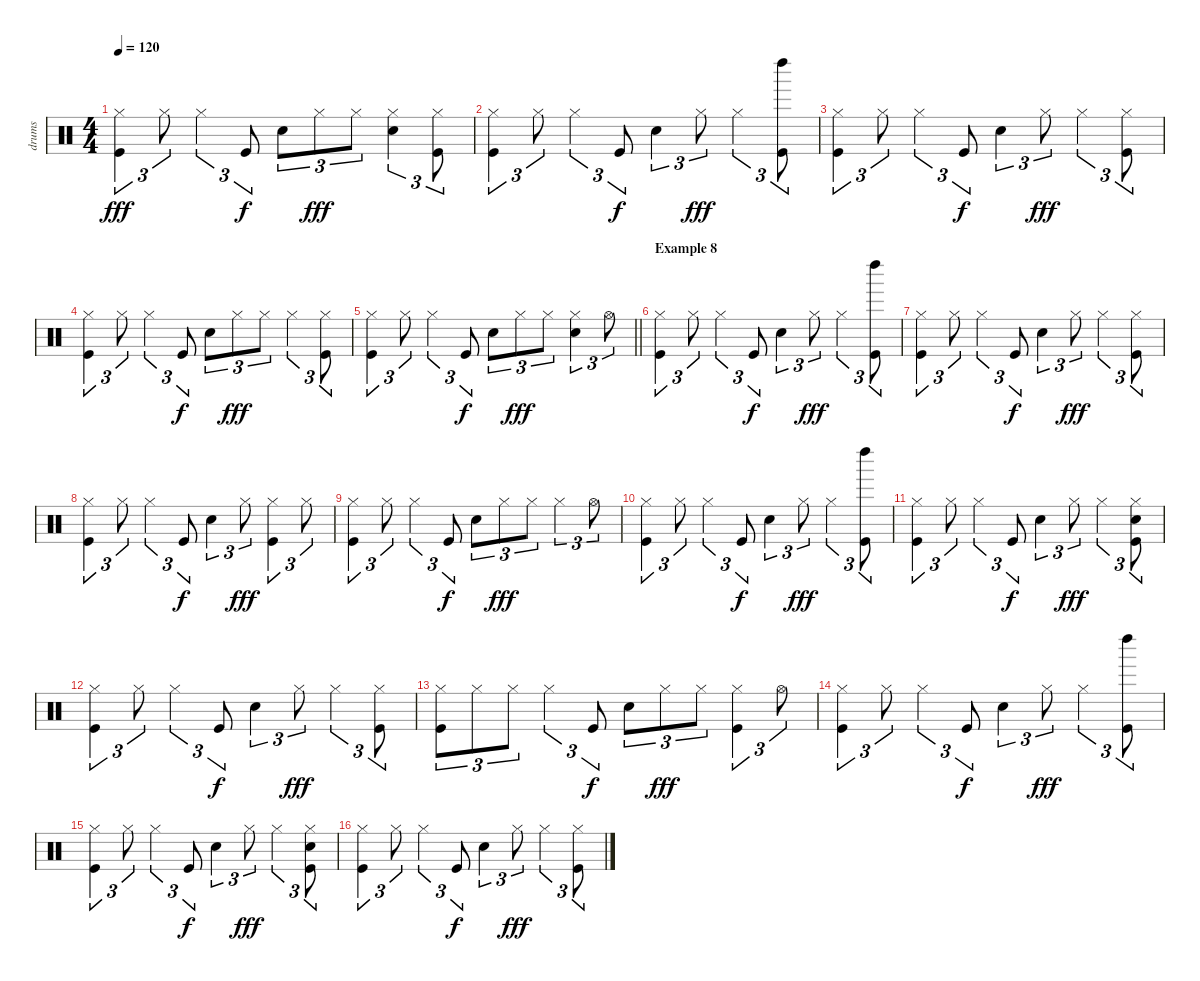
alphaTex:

\track ("drums" "drums") {instrument percussion}
\staff {score}
\articulation defaults
\ts (4 4)
\tempo 120
\clef neutral
\ks c
("Hi-Hat (closed)" "Kick (hit)").4{tu (3 2) dy fff} "Hi-Hat (closed)".8{tu (3 2)} "Hi-Hat (closed)".4{tu (3 2)} "Kick (hit)".8{tu (3 2) dy f} "Snare (hit) 2".8{tu (3 2)} "Hi-Hat (closed)".8{tu (3 2) dy fff} "Hi-Hat (closed)".8{tu (3 2)} ("Snare (hit) 2" "Hi-Hat (closed)").4{tu (3 2)} ("Hi-Hat (closed)" "Kick (hit)").8{tu (3 2)} |
("Hi-Hat (closed)" "Kick (hit)").4{tu (3 2)} "Hi-Hat (closed)".8{tu (3 2)} "Hi-Hat (closed)".4{tu (3 2)} "Kick (hit)".8{tu (3 2) dy f} "Snare (hit) 2".4{tu (3 2)} "Hi-Hat (closed)".8{tu (3 2) dy fff} "Hi-Hat (closed)".4{tu (3 2)} ("Left Maraca (hit)" "Kick (hit)").8{tu (3 2)} |
("Hi-Hat (closed)" "Kick (hit)").4{tu (3 2)} "Hi-Hat (closed)".8{tu (3 2)} "Hi-Hat (closed)".4{tu (3 2)} "Kick (hit)".8{tu (3 2) dy f} "Snare (hit) 2".4{tu (3 2)} "Hi-Hat (closed)".8{tu (3 2) dy fff} "Hi-Hat (closed)".4{tu (3 2)} ("Hi-Hat (closed)" "Kick (hit)").8{tu (3 2)} |
("Hi-Hat (closed)" "Kick (hit)").4{tu (3 2)} "Hi-Hat (closed)".8{tu (3 2)} "Hi-Hat (closed)".4{tu (3 2)} "Kick (hit)".8{tu (3 2) dy f} "Snare (hit) 2".8{tu (3 2)} "Hi-Hat (closed)".8{tu (3 2) dy fff} "Hi-Hat (closed)".8{tu (3 2)} "Hi-Hat (closed)".4{tu (3 2)} ("Hi-Hat (closed)" "Kick (hit)").8{tu (3 2)} |
\barLineRight lightlight
("Hi-Hat (closed)" "Kick (hit)").4{tu (3 2)} "Hi-Hat (closed)".8{tu (3 2)} "Hi-Hat (closed)".4{tu (3 2)} "Kick (hit)".8{tu (3 2) dy f} "Snare (hit) 2".8{tu (3 2)} "Hi-Hat (closed)".8{tu (3 2) dy fff} "Hi-Hat (closed)".8{tu (3 2)} ("Snare (hit) 2" "Hi-Hat (closed)").4{tu (3 2)} "Hi-Hat (open)".8{tu (3 2)} |
\section ("" "Example 8")
("Hi-Hat (closed)" "Kick (hit)").4{tu (3 2)} "Hi-Hat (closed)".8{tu (3 2)} "Hi-Hat (closed)".4{tu (3 2)} "Kick (hit)".8{tu (3 2) dy f} "Snare (hit) 2".4{tu (3 2)} "Hi-Hat (closed)".8{tu (3 2) dy fff} "Hi-Hat (closed)".4{tu (3 2)} ("Left Maraca (hit)" "Kick (hit)").8{tu (3 2)} |
("Hi-Hat (closed)" "Kick (hit)").4{tu (3 2)} "Hi-Hat (closed)".8{tu (3 2)} "Hi-Hat (closed)".4{tu (3 2)} "Kick (hit)".8{tu (3 2) dy f} "Snare (hit) 2".4{tu (3 2)} "Hi-Hat (closed)".8{tu (3 2) dy fff} "Hi-Hat (closed)".4{tu (3 2)} ("Hi-Hat (closed)" "Kick (hit)").8{tu (3 2)} |
("Hi-Hat (closed)" "Kick (hit)").4{tu (3 2)} "Hi-Hat (closed)".8{tu (3 2)} "Hi-Hat (closed)".4{tu (3 2)} "Kick (hit)".8{tu (3 2) dy f} "Snare (hit) 2".4{tu (3 2)} "Hi-Hat (closed)".8{tu (3 2) dy fff} ("Hi-Hat (closed)" "Kick (hit)").4{tu (3 2)} "Hi-Hat (closed)".8{tu (3 2)} |
("Hi-Hat (closed)" "Kick (hit)").4{tu (3 2)} "Hi-Hat (closed)".8{tu (3 2)} "Hi-Hat (closed)".4{tu (3 2)} "Kick (hit)".8{tu (3 2) dy f} "Snare (hit) 2".8{tu (3 2)} "Hi-Hat (closed)".8{tu (3 2) dy fff} "Hi-Hat (closed)".8{tu (3 2)} "Hi-Hat (closed)".4{tu (3 2)} "Hi-Hat (open)".8{tu (3 2)} |
("Hi-Hat (closed)" "Kick (hit)").4{tu (3 2)} "Hi-Hat (closed)".8{tu (3 2)} "Hi-Hat (closed)".4{tu (3 2)} "Kick (hit)".8{tu (3 2) dy f} "Snare (hit) 2".4{tu (3 2)} "Hi-Hat (closed)".8{tu (3 2) dy fff} "Hi-Hat (closed)".4{tu (3 2)} ("Left Maraca (hit)" "Kick (hit)").8{tu (3 2)} |
("Hi-Hat (closed)" "Kick (hit)").4{tu (3 2)} "Hi-Hat (closed)".8{tu (3 2)} "Hi-Hat (closed)".4{tu (3 2)} "Kick (hit)".8{tu (3 2) dy f} "Snare (hit) 2".4{tu (3 2)} "Hi-Hat (closed)".8{tu (3 2) dy fff} "Hi-Hat (closed)".4{tu (3 2)} ("Snare (hit) 2" "Hi-Hat (closed)" "Kick (hit)").8{tu (3 2)} |
("Hi-Hat (closed)" "Kick (hit)").4{tu (3 2)} "Hi-Hat (closed)".8{tu (3 2)} "Hi-Hat (closed)".4{tu (3 2)} "Kick (hit)".8{tu (3 2) dy f} "Snare (hit) 2".4{tu (3 2)} "Hi-Hat (closed)".8{tu (3 2) dy fff} "Hi-Hat (closed)".4{tu (3 2)} ("Hi-Hat (closed)" "Kick (hit)").8{tu (3 2)} |
("Hi-Hat (closed)" "Kick (hit)").8{tu (3 2)} "Hi-Hat (closed)".8{tu (3 2)} "Hi-Hat (closed)".8{tu (3 2)} "Hi-Hat (closed)".4{tu (3 2)} "Kick (hit)".8{tu (3 2) dy f} "Snare (hit) 2".8{tu (3 2)} "Hi-Hat (closed)".8{tu (3 2) dy fff} "Hi-Hat (closed)".8{tu (3 2)} ("Hi-Hat (closed)" "Kick (hit)").4{tu (3 2)} "Hi-Hat (open)".8{tu (3 2)} |
("Hi-Hat (closed)" "Kick (hit)").4{tu (3 2)} "Hi-Hat (closed)".8{tu (3 2)} "Hi-Hat (closed)".4{tu (3 2)} "Kick (hit)".8{tu (3 2) dy f} "Snare (hit) 2".4{tu (3 2)} "Hi-Hat (closed)".8{tu (3 2) dy fff} "Hi-Hat (closed)".4{tu (3 2)} ("Left Maraca (hit)" "Kick (hit)").8{tu (3 2)} |
("Hi-Hat (closed)" "Kick (hit)").4{tu (3 2)} "Hi-Hat (closed)".8{tu (3 2)} "Hi-Hat (closed)".4{tu (3 2)} "Kick (hit)".8{tu (3 2) dy f} "Snare (hit) 2".4{tu (3 2)} "Hi-Hat (closed)".8{tu (3 2) dy fff} "Hi-Hat (closed)".4{tu (3 2)} ("Snare (hit) 2" "Hi-Hat (closed)" "Kick (hit)").8{tu (3 2)} |
("Hi-Hat (closed)" "Kick (hit)").4{tu (3 2)} "Hi-Hat (closed)".8{tu (3 2)} "Hi-Hat (closed)".4{tu (3 2)} "Kick (hit)".8{tu (3 2) dy f} "Snare (hit) 2".4{tu (3 2)} "Hi-Hat (closed)".8{tu (3 2) dy fff} "Hi-Hat (closed)".4{tu (3 2)} ("Hi-Hat (closed)" "Kick (hit)").8{tu (3 2)}
